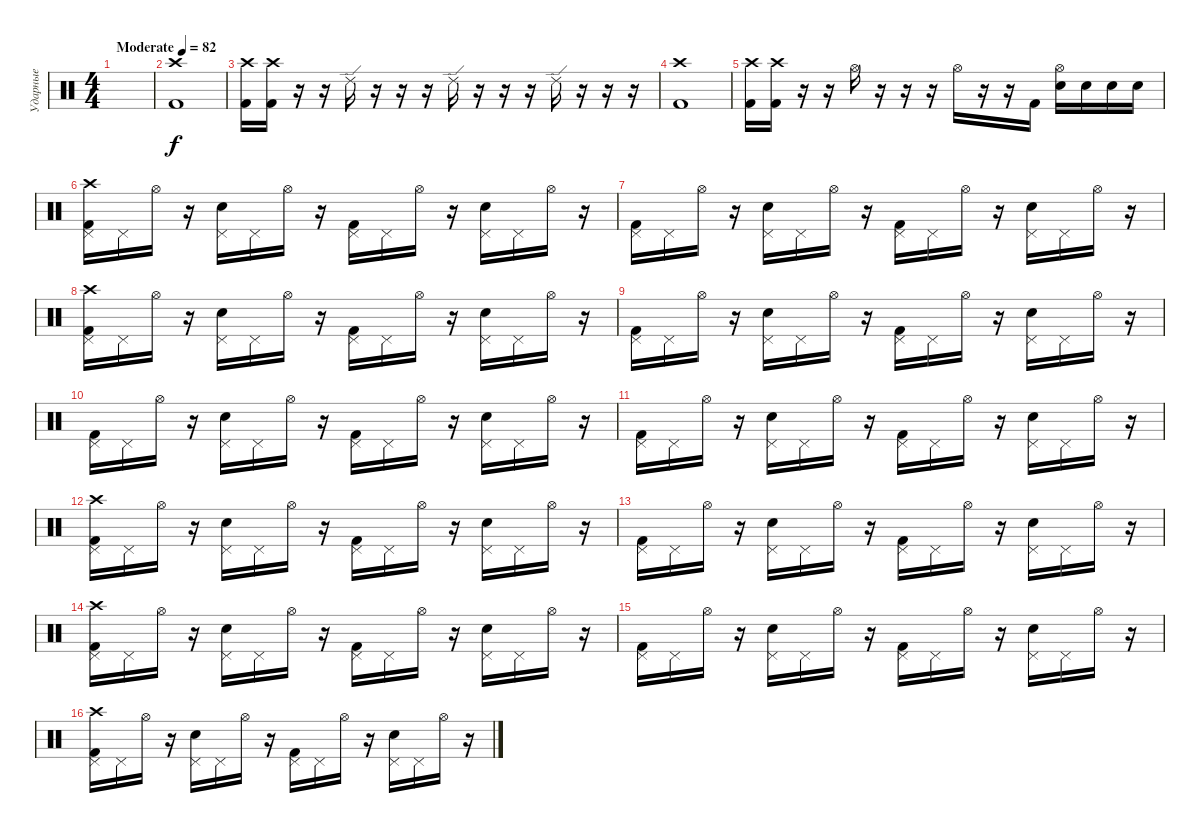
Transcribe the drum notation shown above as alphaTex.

\track ("Ударные" "Ударные") {instrument percussion}
\staff {score}
\articulation defaults
\ts (4 4)
\tempo (82 "Moderate")
\clef neutral
\ks c
|
("Crash high (hit)" "Kick (hit) 2").1 |
("Crash high (hit)" "Kick (hit) 2").16 ("Crash high (hit)" "Kick (hit) 2").16 r.16 r.16 "Ride (edge) 2".16 r.16 r.16 r.16 "Ride (edge) 2".16 r.16 r.16 r.16 "Ride (edge) 2".16 r.16 r.16 r.16 |
("Crash high (hit)" "Kick (hit) 2").1 |
("Crash high (hit)" "Kick (hit) 2").16 ("Crash high (hit)" "Kick (hit) 2").16 r.16 r.16 "Hi-Hat (open)".16 r.16 r.16 r.16 "Hi-Hat (open)".16 r.16 r.16 "Kick (hit) 2".16 ("Hi-Hat (open)" "Electric Snare (hit)").16 "Electric Snare (hit)".16 "Electric Snare (hit)".16 "Electric Snare (hit)".16 |
("Crash high (hit)" "Pedal Hi-Hat (hit)" "Kick (hit) 2").16 "Pedal Hi-Hat (hit)".16 "Hi-Hat (open)".16 r.16 ("Pedal Hi-Hat (hit)" "Electric Snare (hit)").16 "Pedal Hi-Hat (hit)".16 "Hi-Hat (open)".16 r.16 ("Pedal Hi-Hat (hit)" "Kick (hit) 2").16 "Pedal Hi-Hat (hit)".16 "Hi-Hat (open)".16 r.16 ("Pedal Hi-Hat (hit)" "Electric Snare (hit)").16 "Pedal Hi-Hat (hit)".16 "Hi-Hat (open)".16 r.16 |
("Pedal Hi-Hat (hit)" "Kick (hit) 2").16 "Pedal Hi-Hat (hit)".16 "Hi-Hat (open)".16 r.16 ("Pedal Hi-Hat (hit)" "Electric Snare (hit)").16 "Pedal Hi-Hat (hit)".16 "Hi-Hat (open)".16 r.16 ("Pedal Hi-Hat (hit)" "Kick (hit) 2").16 "Pedal Hi-Hat (hit)".16 "Hi-Hat (open)".16 r.16 ("Pedal Hi-Hat (hit)" "Electric Snare (hit)").16 "Pedal Hi-Hat (hit)".16 "Hi-Hat (open)".16 r.16 |
("Crash high (hit)" "Pedal Hi-Hat (hit)" "Kick (hit) 2").16 "Pedal Hi-Hat (hit)".16 "Hi-Hat (open)".16 r.16 ("Pedal Hi-Hat (hit)" "Electric Snare (hit)").16 "Pedal Hi-Hat (hit)".16 "Hi-Hat (open)".16 r.16 ("Pedal Hi-Hat (hit)" "Kick (hit) 2").16 "Pedal Hi-Hat (hit)".16 "Hi-Hat (open)".16 r.16 ("Pedal Hi-Hat (hit)" "Electric Snare (hit)").16 "Pedal Hi-Hat (hit)".16 "Hi-Hat (open)".16 r.16 |
("Pedal Hi-Hat (hit)" "Kick (hit) 2").16 "Pedal Hi-Hat (hit)".16 "Hi-Hat (open)".16 r.16 ("Pedal Hi-Hat (hit)" "Electric Snare (hit)").16 "Pedal Hi-Hat (hit)".16 "Hi-Hat (open)".16 r.16 ("Pedal Hi-Hat (hit)" "Kick (hit) 2").16 "Pedal Hi-Hat (hit)".16 "Hi-Hat (open)".16 r.16 ("Pedal Hi-Hat (hit)" "Electric Snare (hit)").16 "Pedal Hi-Hat (hit)".16 "Hi-Hat (open)".16 r.16 |
("Pedal Hi-Hat (hit)" "Kick (hit) 2").16 "Pedal Hi-Hat (hit)".16 "Hi-Hat (open)".16 r.16 ("Pedal Hi-Hat (hit)" "Electric Snare (hit)").16 "Pedal Hi-Hat (hit)".16 "Hi-Hat (open)".16 r.16 ("Pedal Hi-Hat (hit)" "Kick (hit) 2").16 "Pedal Hi-Hat (hit)".16 "Hi-Hat (open)".16 r.16 ("Pedal Hi-Hat (hit)" "Electric Snare (hit)").16 "Pedal Hi-Hat (hit)".16 "Hi-Hat (open)".16 r.16 |
("Pedal Hi-Hat (hit)" "Kick (hit) 2").16 "Pedal Hi-Hat (hit)".16 "Hi-Hat (open)".16 r.16 ("Pedal Hi-Hat (hit)" "Electric Snare (hit)").16 "Pedal Hi-Hat (hit)".16 "Hi-Hat (open)".16 r.16 ("Pedal Hi-Hat (hit)" "Kick (hit) 2").16 "Pedal Hi-Hat (hit)".16 "Hi-Hat (open)".16 r.16 ("Pedal Hi-Hat (hit)" "Electric Snare (hit)").16 "Pedal Hi-Hat (hit)".16 "Hi-Hat (open)".16 r.16 |
("Crash high (hit)" "Pedal Hi-Hat (hit)" "Kick (hit) 2").16 "Pedal Hi-Hat (hit)".16 "Hi-Hat (open)".16 r.16 ("Pedal Hi-Hat (hit)" "Electric Snare (hit)").16 "Pedal Hi-Hat (hit)".16 "Hi-Hat (open)".16 r.16 ("Pedal Hi-Hat (hit)" "Kick (hit) 2").16 "Pedal Hi-Hat (hit)".16 "Hi-Hat (open)".16 r.16 ("Pedal Hi-Hat (hit)" "Electric Snare (hit)").16 "Pedal Hi-Hat (hit)".16 "Hi-Hat (open)".16 r.16 |
("Pedal Hi-Hat (hit)" "Kick (hit) 2").16 "Pedal Hi-Hat (hit)".16 "Hi-Hat (open)".16 r.16 ("Pedal Hi-Hat (hit)" "Electric Snare (hit)").16 "Pedal Hi-Hat (hit)".16 "Hi-Hat (open)".16 r.16 ("Pedal Hi-Hat (hit)" "Kick (hit) 2").16 "Pedal Hi-Hat (hit)".16 "Hi-Hat (open)".16 r.16 ("Pedal Hi-Hat (hit)" "Electric Snare (hit)").16 "Pedal Hi-Hat (hit)".16 "Hi-Hat (open)".16 r.16 |
("Crash high (hit)" "Pedal Hi-Hat (hit)" "Kick (hit) 2").16 "Pedal Hi-Hat (hit)".16 "Hi-Hat (open)".16 r.16 ("Pedal Hi-Hat (hit)" "Electric Snare (hit)").16 "Pedal Hi-Hat (hit)".16 "Hi-Hat (open)".16 r.16 ("Pedal Hi-Hat (hit)" "Kick (hit) 2").16 "Pedal Hi-Hat (hit)".16 "Hi-Hat (open)".16 r.16 ("Pedal Hi-Hat (hit)" "Electric Snare (hit)").16 "Pedal Hi-Hat (hit)".16 "Hi-Hat (open)".16 r.16 |
("Pedal Hi-Hat (hit)" "Kick (hit) 2").16 "Pedal Hi-Hat (hit)".16 "Hi-Hat (open)".16 r.16 ("Pedal Hi-Hat (hit)" "Electric Snare (hit)").16 "Pedal Hi-Hat (hit)".16 "Hi-Hat (open)".16 r.16 ("Pedal Hi-Hat (hit)" "Kick (hit) 2").16 "Pedal Hi-Hat (hit)".16 "Hi-Hat (open)".16 r.16 ("Pedal Hi-Hat (hit)" "Electric Snare (hit)").16 "Pedal Hi-Hat (hit)".16 "Hi-Hat (open)".16 r.16 |
("Crash high (hit)" "Pedal Hi-Hat (hit)" "Kick (hit) 2").16 "Pedal Hi-Hat (hit)".16 "Hi-Hat (open)".16 r.16 ("Pedal Hi-Hat (hit)" "Electric Snare (hit)").16 "Pedal Hi-Hat (hit)".16 "Hi-Hat (open)".16 r.16 ("Pedal Hi-Hat (hit)" "Kick (hit) 2").16 "Pedal Hi-Hat (hit)".16 "Hi-Hat (open)".16 r.16 ("Pedal Hi-Hat (hit)" "Electric Snare (hit)").16 "Pedal Hi-Hat (hit)".16 "Hi-Hat (open)".16 r.16
